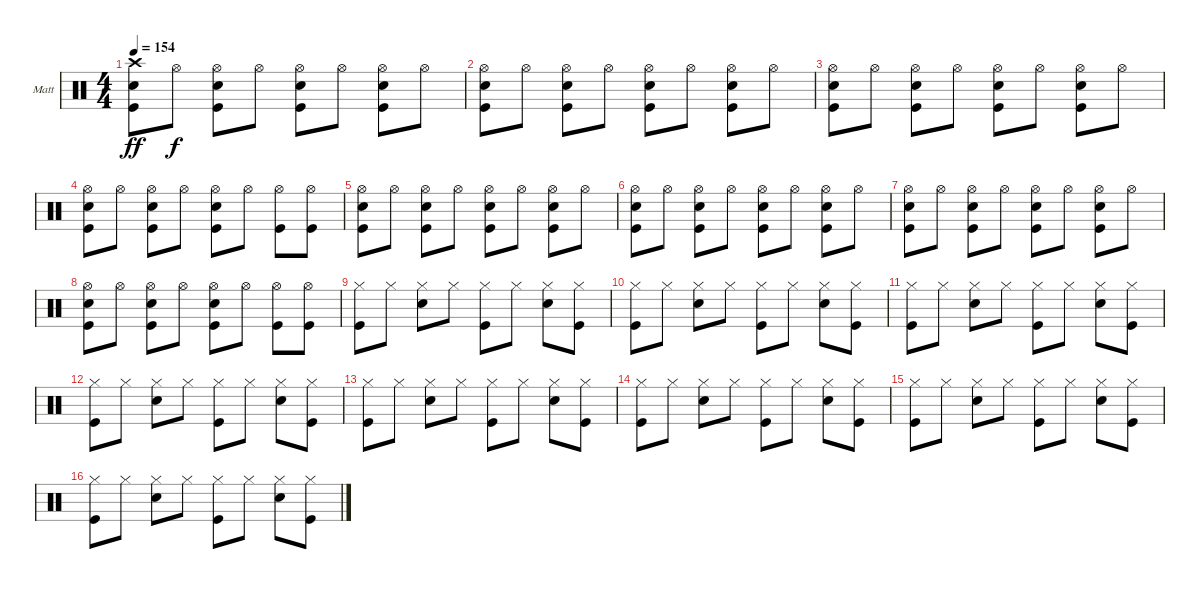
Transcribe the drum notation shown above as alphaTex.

\defaultSystemsLayout 4
\bracketExtendMode groupsimilarinstruments
\firstSystemTrackNameOrientation horizontal
\otherSystemsTrackNameOrientation horizontal
\track ("Matt Helders" "Matt") {instrument percussion}
\staff {score}
\articulation defaults
\ts (4 4)
\tempo 154
\clef neutral
\ks c
("Kick (hit)" "Crash high (hit)" "Snare (hit) 2").8{dy ff} "Hi-Hat (open)".8{dy f} ("Hi-Hat (open)" "Kick (hit)" "Snare (hit) 2").8 "Hi-Hat (open)".8 ("Hi-Hat (open)" "Kick (hit)" "Snare (hit) 2").8 "Hi-Hat (open)".8 ("Hi-Hat (open)" "Kick (hit)" "Snare (hit) 2").8 "Hi-Hat (open)".8 |
("Kick (hit)" "Snare (hit) 2" "Hi-Hat (open)").8 "Hi-Hat (open)".8 ("Hi-Hat (open)" "Kick (hit)" "Snare (hit) 2").8 "Hi-Hat (open)".8 ("Hi-Hat (open)" "Kick (hit)" "Snare (hit) 2").8 "Hi-Hat (open)".8 ("Hi-Hat (open)" "Kick (hit)" "Snare (hit) 2").8 "Hi-Hat (open)".8 |
("Kick (hit)" "Snare (hit) 2" "Hi-Hat (open)").8 "Hi-Hat (open)".8 ("Kick (hit)" "Snare (hit) 2" "Hi-Hat (open)").8 "Hi-Hat (open)".8 ("Hi-Hat (open)" "Kick (hit)" "Snare (hit) 2").8 "Hi-Hat (open)".8 ("Hi-Hat (open)" "Kick (hit)" "Snare (hit) 2").8 "Hi-Hat (open)".8 |
("Kick (hit)" "Snare (hit) 2" "Hi-Hat (open)").8 "Hi-Hat (open)".8 ("Hi-Hat (open)" "Kick (hit)" "Snare (hit) 2").8 "Hi-Hat (open)".8 ("Hi-Hat (open)" "Kick (hit)" "Snare (hit) 2").8 "Hi-Hat (open)".8 ("Hi-Hat (open)" "Kick (hit)").8 ("Hi-Hat (open)" "Kick (hit)").8 |
("Kick (hit)" "Snare (hit) 2" "Hi-Hat (open)").8 "Hi-Hat (open)".8 ("Hi-Hat (open)" "Kick (hit)" "Snare (hit) 2").8 "Hi-Hat (open)".8 ("Hi-Hat (open)" "Kick (hit)" "Snare (hit) 2").8 "Hi-Hat (open)".8 ("Hi-Hat (open)" "Kick (hit)" "Snare (hit) 2").8 "Hi-Hat (open)".8 |
("Kick (hit)" "Snare (hit) 2" "Hi-Hat (open)").8 "Hi-Hat (open)".8 ("Hi-Hat (open)" "Kick (hit)" "Snare (hit) 2").8 "Hi-Hat (open)".8 ("Hi-Hat (open)" "Kick (hit)" "Snare (hit) 2").8 "Hi-Hat (open)".8 ("Hi-Hat (open)" "Kick (hit)" "Snare (hit) 2").8 "Hi-Hat (open)".8 |
("Kick (hit)" "Snare (hit) 2" "Hi-Hat (open)").8 "Hi-Hat (open)".8 ("Hi-Hat (open)" "Kick (hit)" "Snare (hit) 2").8 "Hi-Hat (open)".8 ("Hi-Hat (open)" "Kick (hit)" "Snare (hit) 2").8 "Hi-Hat (open)".8 ("Hi-Hat (open)" "Kick (hit)" "Snare (hit) 2").8 "Hi-Hat (open)".8 |
("Kick (hit)" "Snare (hit) 2" "Hi-Hat (open)").8 "Hi-Hat (open)".8 ("Hi-Hat (open)" "Kick (hit)" "Snare (hit) 2").8 "Hi-Hat (open)".8 ("Hi-Hat (open)" "Kick (hit)" "Snare (hit) 2").8 "Hi-Hat (open)".8 ("Hi-Hat (open)" "Kick (hit)").8 ("Hi-Hat (open)" "Kick (hit)").8 |
("Hi-Hat (closed)" "Kick (hit)").8 "Hi-Hat (closed)".8 ("Hi-Hat (closed)" "Snare (hit) 2").8 "Hi-Hat (closed)".8 ("Hi-Hat (closed)" "Kick (hit)").8 "Hi-Hat (closed)".8 ("Hi-Hat (closed)" "Snare (hit) 2").8 ("Hi-Hat (closed)" "Kick (hit)").8 |
("Hi-Hat (closed)" "Kick (hit)").8 "Hi-Hat (closed)".8 ("Hi-Hat (closed)" "Snare (hit) 2").8 "Hi-Hat (closed)".8 ("Hi-Hat (closed)" "Kick (hit)").8 "Hi-Hat (closed)".8 ("Hi-Hat (closed)" "Snare (hit) 2").8 ("Hi-Hat (closed)" "Kick (hit)").8 |
("Hi-Hat (closed)" "Kick (hit)").8 "Hi-Hat (closed)".8 ("Hi-Hat (closed)" "Snare (hit) 2").8 "Hi-Hat (closed)".8 ("Hi-Hat (closed)" "Kick (hit)").8 "Hi-Hat (closed)".8 ("Hi-Hat (closed)" "Snare (hit) 2").8 ("Hi-Hat (closed)" "Kick (hit)").8 |
("Hi-Hat (closed)" "Kick (hit)").8 "Hi-Hat (closed)".8 ("Hi-Hat (closed)" "Snare (hit) 2").8 "Hi-Hat (closed)".8 ("Hi-Hat (closed)" "Kick (hit)").8 "Hi-Hat (closed)".8 ("Hi-Hat (closed)" "Snare (hit) 2").8 ("Hi-Hat (closed)" "Kick (hit)").8 |
("Hi-Hat (closed)" "Kick (hit)").8 "Hi-Hat (closed)".8 ("Hi-Hat (closed)" "Snare (hit) 2").8 "Hi-Hat (closed)".8 ("Hi-Hat (closed)" "Kick (hit)").8 "Hi-Hat (closed)".8 ("Hi-Hat (closed)" "Snare (hit) 2").8 ("Hi-Hat (closed)" "Kick (hit)").8 |
("Hi-Hat (closed)" "Kick (hit)").8 "Hi-Hat (closed)".8 ("Hi-Hat (closed)" "Snare (hit) 2").8 "Hi-Hat (closed)".8 ("Hi-Hat (closed)" "Kick (hit)").8 "Hi-Hat (closed)".8 ("Hi-Hat (closed)" "Snare (hit) 2").8 ("Hi-Hat (closed)" "Kick (hit)").8 |
("Hi-Hat (closed)" "Kick (hit)").8 "Hi-Hat (closed)".8 ("Hi-Hat (closed)" "Snare (hit) 2").8 "Hi-Hat (closed)".8 ("Hi-Hat (closed)" "Kick (hit)").8 "Hi-Hat (closed)".8 ("Hi-Hat (closed)" "Snare (hit) 2").8 ("Hi-Hat (closed)" "Kick (hit)").8 |
("Hi-Hat (closed)" "Kick (hit)").8 "Hi-Hat (closed)".8 ("Hi-Hat (closed)" "Snare (hit) 2").8 "Hi-Hat (closed)".8 ("Hi-Hat (closed)" "Kick (hit)").8 "Hi-Hat (closed)".8 ("Hi-Hat (closed)" "Snare (hit) 2").8 ("Hi-Hat (closed)" "Kick (hit)").8
